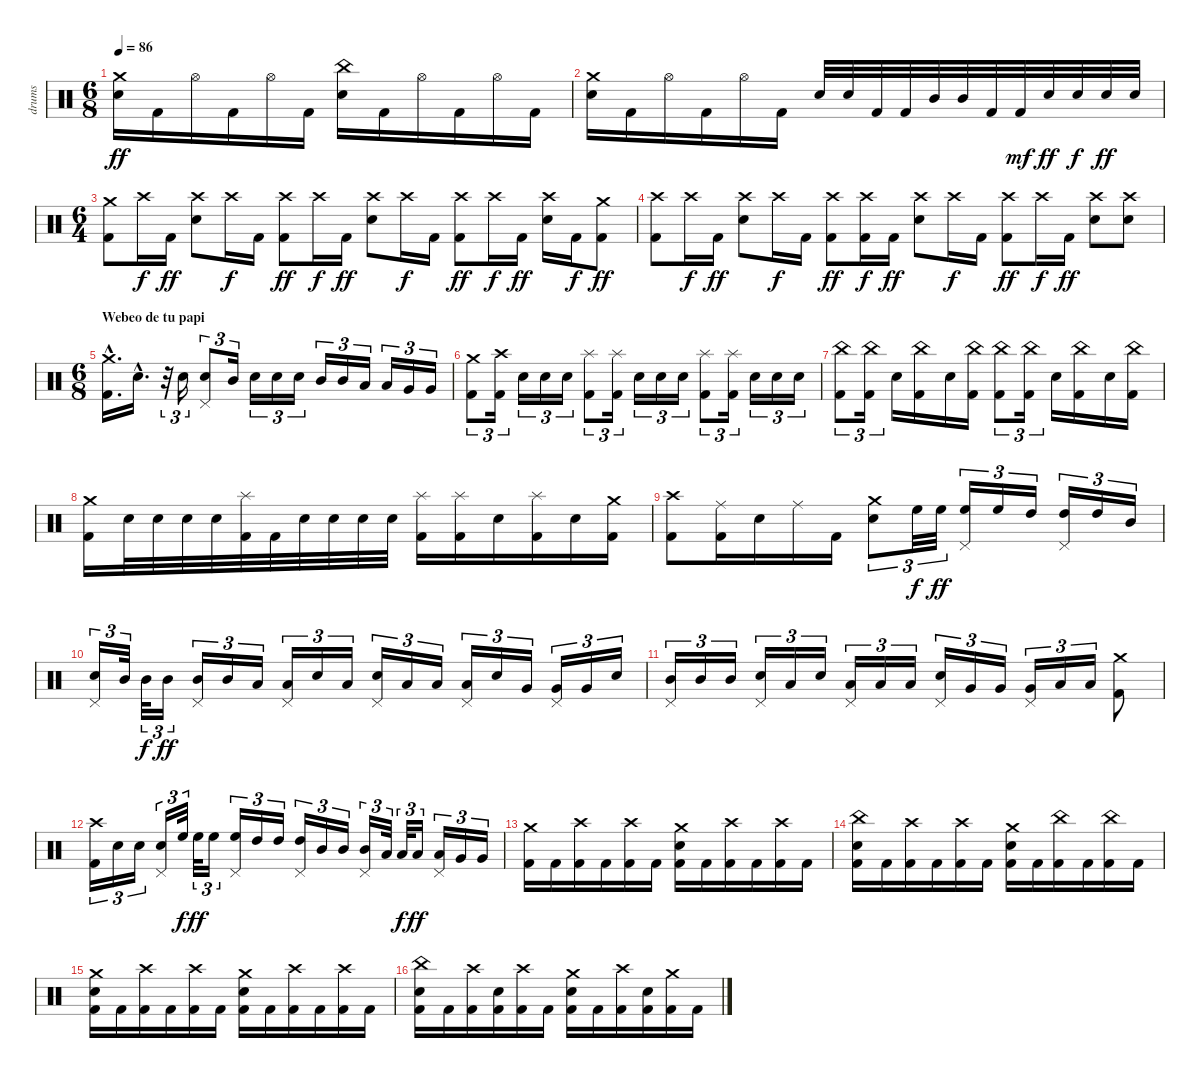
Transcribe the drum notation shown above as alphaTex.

\track ("drums" "drums") {instrument percussion}
\staff {score}
\articulation defaults
\ts (6 8)
\tempo 86
\clef neutral
\ks c
("Crash medium (hit)" "Snare (hit) 2").16{dy ff} "Kick (hit) 2".16 "Hi-Hat (open)".16 "Kick (hit) 2".16 "Hi-Hat (open)".16 "Kick (hit) 2".16 ("China (hit)" "Snare (hit) 2").16 "Kick (hit) 2".16 "Hi-Hat (open)".16 "Kick (hit) 2".16 "Hi-Hat (open)".16 "Kick (hit) 2".16 |
("Crash medium (hit)" "Snare (hit) 2").16 "Kick (hit) 2".16 "Hi-Hat (open)".16 "Kick (hit) 2".16 "Hi-Hat (open)".16 "Kick (hit) 2".16 "Snare (hit) 2".32 "Snare (hit) 2".32 "Kick (hit) 2".32 "Kick (hit) 2".32 "Mid Tom (hit)".32 "Mid Tom (hit)".32 "Kick (hit) 2".32 "Kick (hit) 2".32{dy mf} "Snare (hit) 2".32{dy ff} "Snare (hit) 2".32{dy f} "Snare (hit) 2".32{dy ff} "Snare (hit) 2".32 |
\ts (6 4)
("Crash medium (hit)" "Kick (hit) 2").8 "Crash high (hit)".16{dy f} "Kick (hit) 2".16{dy ff} ("Crash high (hit)" "Snare (hit) 2").8 "Crash high (hit)".16{dy f} "Kick (hit) 2".16 ("Crash high (hit)" "Kick (hit) 2").8{dy ff} "Crash high (hit)".16{dy f} "Kick (hit) 2".16{dy ff} ("Crash high (hit)" "Snare (hit) 2").8 "Crash high (hit)".16{dy f} "Kick (hit) 2".16 ("Crash high (hit)" "Kick (hit) 2").8{dy ff} "Crash high (hit)".16{dy f} "Kick (hit) 2".16{dy ff} ("Crash high (hit)" "Snare (hit) 2").16 "Kick (hit) 2".16{dy f} ("Crash medium (hit)" "Kick (hit) 2").8{dy ff} |
("Crash high (hit)" "Kick (hit) 2").8 "Crash high (hit)".16{dy f} "Kick (hit) 2".16{dy ff} ("Crash high (hit)" "Snare (hit) 2").8 "Crash high (hit)".16{dy f} "Kick (hit) 2".16 ("Crash high (hit)" "Kick (hit) 2").8{dy ff} ("Crash high (hit)" "Kick (hit) 2").16{dy f} "Kick (hit) 2".16{dy ff} ("Crash high (hit)" "Snare (hit) 2").8 "Crash high (hit)".16{dy f} "Kick (hit) 2".16 ("Crash high (hit)" "Kick (hit) 2").8{dy ff} "Crash high (hit)".16{dy f} "Kick (hit) 2".16{dy ff} ("Crash high (hit)" "Snare (hit) 2").8 ("Crash high (hit)" "Snare (hit) 2").8 |
\ts (6 8)
\section ("" "Webeo de tu papi")
("Crash medium (hit)"{hac} "Kick (hit) 2"{hac}).16{d} "Snare (hit) 2"{hac}.16{d} r.32{tu (3 2)} "Snare (hit) 2".16{tu (3 2)} ("Snare (hit) 2" "Pedal Hi-Hat (hit)").8{tu (3 2)} "Mid Tom (hit)".16{tu (3 2)} "Snare (hit) 2".16{tu (3 2)} "Snare (hit) 2".16{tu (3 2)} "Snare (hit) 2".16{tu (3 2)} "Mid Tom (hit)".16{tu (3 2)} "Mid Tom (hit)".16{tu (3 2)} "Low Tom (hit)".16{tu (3 2)} "Low Tom (hit)".16{tu (3 2)} "Very Low Tom (hit)".16{tu (3 2)} "Very Low Tom (hit)".16{tu (3 2)} |
("Crash medium (hit)" "Kick (hit) 2").8{tu (3 2)} ("Crash high (hit)" "Kick (hit) 2").16{tu (3 2)} "Snare (hit) 2".16{tu (3 2)} "Snare (hit) 2".16{tu (3 2)} "Snare (hit) 2".16{tu (3 2)} ("Splash (hit)" "Kick (hit) 2").8{tu (3 2)} ("Splash (hit)" "Kick (hit) 2").16{tu (3 2)} "Snare (hit) 2".16{tu (3 2)} "Snare (hit) 2".16{tu (3 2)} "Snare (hit) 2".16{tu (3 2)} ("Splash (hit)" "Kick (hit) 2").8{tu (3 2)} ("Splash (hit)" "Kick (hit) 2").16{tu (3 2)} "Snare (hit) 2".16{tu (3 2)} "Snare (hit) 2".16{tu (3 2)} "Snare (hit) 2".16{tu (3 2)} |
("China (hit)" "Kick (hit) 2").8{tu (3 2)} ("China (hit)" "Kick (hit) 2").16{tu (3 2)} "Snare (hit) 2".16 ("China (hit)" "Kick (hit) 2").16 "Snare (hit) 2".16 ("China (hit)" "Kick (hit) 2").16 ("China (hit)" "Kick (hit) 2").8{tu (3 2)} ("China (hit)" "Kick (hit) 2").16{tu (3 2)} "Snare (hit) 2".16 ("China (hit)" "Kick (hit) 2").16 "Snare (hit) 2".16 ("China (hit)" "Kick (hit) 2").16 |
("Crash medium (hit)" "Kick (hit) 2").16 "Snare (hit) 2".32 "Snare (hit) 2".32 "Snare (hit) 2".32 "Snare (hit) 2".32 ("Splash (hit)" "Kick (hit) 2").32 "Kick (hit) 2".32 "Snare (hit) 2".32 "Snare (hit) 2".32 "Snare (hit) 2".32 "Snare (hit) 2".32 ("Splash (hit)" "Kick (hit) 2").16 ("Splash (hit)" "Kick (hit) 2").16 "Snare (hit) 2".16 ("Splash (hit)" "Kick (hit) 2").16 "Snare (hit) 2".16 ("Crash medium (hit)" "Kick (hit) 2").16 |
("Crash high (hit)" "Kick (hit) 2").8 ("Ride (middle)" "Kick (hit) 2").16 "Snare (hit) 2".16 "Ride (middle)".16 "Kick (hit) 2".16 ("Crash medium (hit)" "Snare (hit) 2").8{tu (3 2)} "High Floor Tom (hit)".32{tu (3 2) dy f} "High Floor Tom (hit)".32{tu (3 2) dy ff} ("High Floor Tom (hit)" "Pedal Hi-Hat (hit)").16{tu (3 2)} "High Floor Tom (hit)".16{tu (3 2)} "High Tom (hit)".16{tu (3 2)} ("High Tom (hit)" "Pedal Hi-Hat (hit)").16{tu (3 2)} "High Tom (hit)".16{tu (3 2)} "Mid Tom (hit)".16{tu (3 2)} |
("Snare (hit) 2" "Pedal Hi-Hat (hit)").16{tu (3 2)} "Mid Tom (hit)".32{tu (3 2)} "Mid Tom (hit)".32{tu (3 2) dy f} "Mid Tom (hit)".16{tu (3 2) dy ff} ("Mid Tom (hit)" "Pedal Hi-Hat (hit)").16{tu (3 2)} "Mid Tom (hit)".16{tu (3 2)} "Low Tom (hit)".16{tu (3 2)} ("Low Tom (hit)" "Pedal Hi-Hat (hit)").16{tu (3 2)} "Snare (hit) 2".16{tu (3 2)} "Low Tom (hit)".16{tu (3 2)} ("Snare (hit) 2" "Pedal Hi-Hat (hit)").16{tu (3 2)} "Low Tom (hit)".16{tu (3 2)} "Low Tom (hit)".16{tu (3 2)} ("Low Tom (hit)" "Pedal Hi-Hat (hit)").16{tu (3 2)} "Snare (hit) 2".16{tu (3 2)} "Very Low Tom (hit)".16{tu (3 2)} ("Very Low Tom (hit)" "Pedal Hi-Hat (hit)").16{tu (3 2)} "Very Low Tom (hit)".16{tu (3 2)} "Snare (hit) 2".16{tu (3 2)} |
("Mid Tom (hit)" "Pedal Hi-Hat (hit)").16{tu (3 2)} "Mid Tom (hit)".16{tu (3 2)} "Mid Tom (hit)".16{tu (3 2)} ("Snare (hit) 2" "Pedal Hi-Hat (hit)").16{tu (3 2)} "Low Tom (hit)".16{tu (3 2)} "Snare (hit) 2".16{tu (3 2)} ("Low Tom (hit)" "Pedal Hi-Hat (hit)").16{tu (3 2)} "Low Tom (hit)".16{tu (3 2)} "Low Tom (hit)".16{tu (3 2)} ("Snare (hit) 2" "Pedal Hi-Hat (hit)").16{tu (3 2)} "Very Low Tom (hit)".16{tu (3 2)} "Very Low Tom (hit)".16{tu (3 2)} ("Very Low Tom (hit)" "Pedal Hi-Hat (hit)").16{tu (3 2)} "Low Floor Tom (hit)".16{tu (3 2)} "Low Floor Tom (hit)".16{tu (3 2)} ("Crash medium (hit)" "Kick (hit) 2").8 |
("Crash high (hit)" "Kick (hit) 2").16{tu (3 2)} "Snare (hit) 2".16{tu (3 2)} "Snare (hit) 2".16{tu (3 2)} ("Snare (hit) 2" "Pedal Hi-Hat (hit)").16{tu (3 2)} "High Floor Tom (hit)".32{tu (3 2) dy f} "High Floor Tom (hit)".32{tu (3 2) dy ff} "High Floor Tom (hit)".16{tu (3 2)} ("High Floor Tom (hit)" "Pedal Hi-Hat (hit)").16{tu (3 2)} "High Tom (hit)".16{tu (3 2)} "High Tom (hit)".16{tu (3 2)} ("High Tom (hit)" "Pedal Hi-Hat (hit)").16{tu (3 2)} "Mid Tom (hit)".16{tu (3 2)} "Mid Tom (hit)".16{tu (3 2)} ("Mid Tom (hit)" "Pedal Hi-Hat (hit)").16{tu (3 2)} "Low Tom (hit)".32{tu (3 2)} "Low Tom (hit)".32{tu (3 2) dy f} "Low Tom (hit)".16{tu (3 2) dy ff} ("Low Tom (hit)" "Pedal Hi-Hat (hit)").16{tu (3 2)} "Very Low Tom (hit)".16{tu (3 2)} "Very Low Tom (hit)".16{tu (3 2)} |
("Crash medium (hit)" "Kick (hit) 2").16 "Kick (hit) 2".16 ("Crash high (hit)" "Kick (hit) 2").16 "Kick (hit) 2".16 ("Crash high (hit)" "Kick (hit) 2").16 "Kick (hit) 2".16 ("Crash medium (hit)" "Snare (hit) 2" "Kick (hit) 2").16 "Kick (hit) 2".16 ("Crash high (hit)" "Kick (hit) 2").16 "Kick (hit) 2".16 ("Crash high (hit)" "Kick (hit) 2").16 "Kick (hit) 2".16 |
("China (hit)" "Snare (hit) 2" "Kick (hit) 2").16 "Kick (hit) 2".16 ("Crash high (hit)" "Kick (hit) 2").16 "Kick (hit) 2".16 ("Crash high (hit)" "Kick (hit) 2").16 "Kick (hit) 2".16 ("Crash medium (hit)" "Snare (hit) 2" "Kick (hit) 2").16 "Kick (hit) 2".16 ("China (hit)" "Kick (hit) 2").16 "Kick (hit) 2".16 ("China (hit)" "Kick (hit) 2").16 "Kick (hit) 2".16 |
("Crash medium (hit)" "Snare (hit) 2" "Kick (hit) 2").16 "Kick (hit) 2".16 ("Crash high (hit)" "Kick (hit) 2").16 "Kick (hit) 2".16 ("Crash high (hit)" "Kick (hit) 2").16 "Kick (hit) 2".16 ("Crash medium (hit)" "Snare (hit) 2" "Kick (hit) 2").16 "Kick (hit) 2".16 ("Crash high (hit)" "Kick (hit) 2").16 "Kick (hit) 2".16 ("Crash high (hit)" "Kick (hit) 2").16 "Kick (hit) 2".16 |
("China (hit)" "Snare (hit) 2" "Kick (hit) 2").16 "Kick (hit) 2".16 ("Crash high (hit)" "Kick (hit) 2").16 ("Snare (hit) 2" "Kick (hit) 2").16 ("Crash high (hit)" "Kick (hit) 2").16 "Kick (hit) 2".16 ("Crash medium (hit)" "Snare (hit) 2" "Kick (hit) 2").16 "Kick (hit) 2".16 ("Crash high (hit)" "Kick (hit) 2").16 ("Snare (hit) 2" "Kick (hit) 2").16 ("Crash medium (hit)" "Kick (hit) 2").16 "Kick (hit) 2".16
